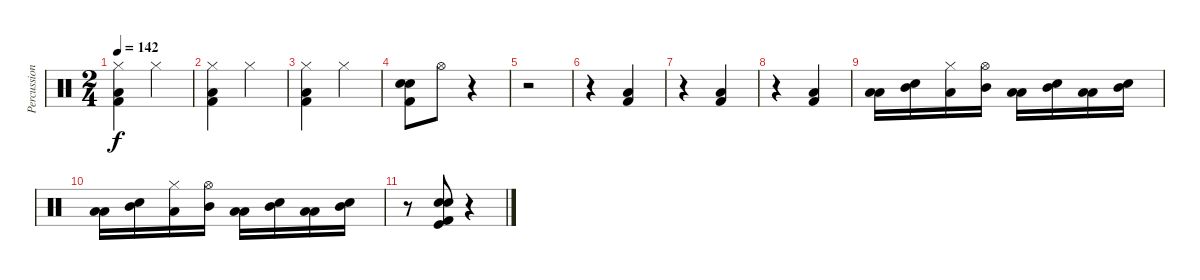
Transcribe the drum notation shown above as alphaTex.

\track ("Percussions" "Percussion") {instrument percussion}
\staff {score}
\articulation defaults
\ts (2 4)
\tempo 142
\clef neutral
\ks c
("Hi-Hat (closed)" "Low Tom (hit)" "Kick (hit) 2").4{dy f} "Hi-Hat (closed)".4 |
("Hi-Hat (closed)" "Low Tom (hit)" "Kick (hit) 2").4 "Hi-Hat (closed)".4 |
("Hi-Hat (closed)" "Low Tom (hit)" "Kick (hit) 2").4 "Hi-Hat (closed)".4 |
("Snare (hit) 2" "Kick (hit) 2" "Electric Snare (hit)").8 "Hi-Hat (open)".8 r.4 |
r.2 |
r.4 ("Low Tom (hit)" "Kick (hit) 2").4 |
r.4 ("Low Tom (hit)" "Kick (hit) 2").4 |
r.4 ("Low Tom (hit)" "Kick (hit) 2").4 |
("Low Tom (hit)" "Low Floor Tom (hit)").16 ("Snare (hit) 2" "Mid Tom (hit)").16 ("Hi-Hat (closed)" "Low Floor Tom (hit)").16 ("Hi-Hat (open)" "Mid Tom (hit)").16 ("Low Tom (hit)" "Low Floor Tom (hit)").16 ("Snare (hit) 2" "Mid Tom (hit)").16 ("Low Tom (hit)" "Low Floor Tom (hit)").16 ("Snare (hit) 2" "Mid Tom (hit)").16 |
("Low Tom (hit)" "Low Floor Tom (hit)").16 ("Snare (hit) 2" "Mid Tom (hit)").16 ("Hi-Hat (closed)" "Low Floor Tom (hit)").16 ("Hi-Hat (open)" "Mid Tom (hit)").16 ("Low Tom (hit)" "Low Floor Tom (hit)").16 ("Snare (hit) 2" "Mid Tom (hit)").16 ("Low Tom (hit)" "Low Floor Tom (hit)").16 ("Snare (hit) 2" "Mid Tom (hit)").16 |
r.8 ("Snare (hit) 2" "Electric Snare (hit)" "Kick (hit) 2" "Kick (hit)").8 r.4
